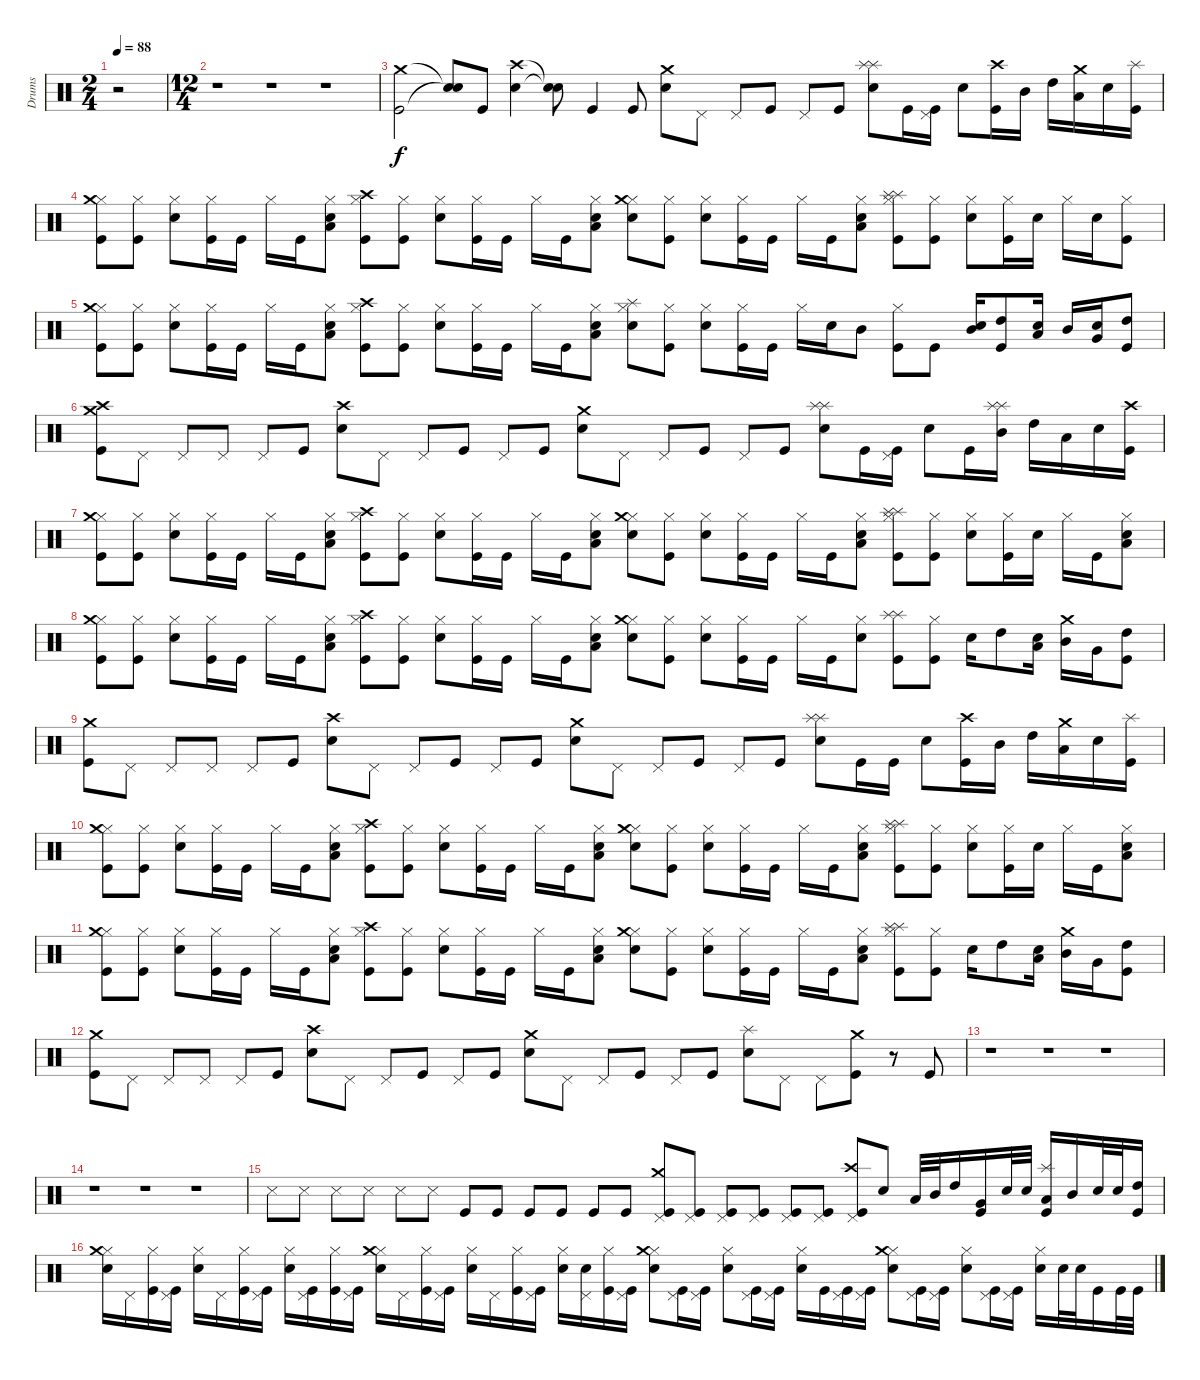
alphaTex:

\track ("Drums" "Drums") {instrument percussion}
\staff {score}
\articulation defaults
\ts (2 4)
\tempo 88
\clef neutral
\ks c
r.2{dy f} |
\ts (12 4)
r.1 r.1 r.1 |
("Kick (hit)" "Crash medium (hit)").2 ("Snare (hit)"{t} "Snare (hit)"{t}).8 "Kick (hit)".8 ("Electric Snare (hit)" "Crash high (hit)").4 ("Snare (hit)"{t} "Snare (hit)"{t}).8 "Kick (hit)".4 "Kick (hit)".8 ("Electric Snare (hit)" "Crash medium (hit)").8 "Pedal Hi-Hat (hit)".8 "Pedal Hi-Hat (hit)".8 "Kick (hit)".8 "Pedal Hi-Hat (hit)".8 "Kick (hit)".8 ("Electric Snare (hit)" "Splash (hit)" "Splash (hit)").8 "Kick (hit)".16 ("Kick (hit)" "Pedal Hi-Hat (hit)").16 "Electric Snare (hit)".8 ("Kick (hit)" "Crash high (hit)").16 "Mid Tom (hit)".16 "High Tom (hit)".16 ("Low Tom (hit)" "Crash medium (hit)").16 "Snare (hit) 2".16 ("Kick (hit)" "Splash (hit)").16 |
("Kick (hit)" "Hi-Hat (closed)" "Crash medium (hit)").8 ("Kick (hit)" "Hi-Hat (closed)").8 ("Electric Snare (hit)" "Hi-Hat (closed)").8 ("Kick (hit)" "Hi-Hat (closed)").16 "Kick (hit)".16 "Hi-Hat (closed)".16 "Kick (hit)".16 ("Electric Snare (hit)" "Low Tom (hit)" "Hi-Hat (closed)").8 ("Kick (hit)" "Hi-Hat (closed)" "Crash high (hit)").8 ("Kick (hit)" "Hi-Hat (closed)").8 ("Electric Snare (hit)" "Hi-Hat (closed)").8 ("Kick (hit)" "Hi-Hat (closed)").16 "Kick (hit)".16 "Hi-Hat (closed)".16 "Kick (hit)".16 ("Electric Snare (hit)" "Low Tom (hit)" "Hi-Hat (closed)").8 ("Electric Snare (hit)" "Hi-Hat (closed)" "Crash medium (hit)").8 ("Kick (hit)" "Hi-Hat (closed)").8 ("Electric Snare (hit)" "Hi-Hat (closed)").8 ("Kick (hit)" "Hi-Hat (closed)").16 "Kick (hit)".16 "Hi-Hat (closed)".16 "Kick (hit)".16 ("Electric Snare (hit)" "Low Tom (hit)" "Hi-Hat (closed)").8 ("Kick (hit)" "Hi-Hat (closed)" "Splash (hit)" "Splash (hit)").8 ("Kick (hit)" "Hi-Hat (closed)").8 ("Electric Snare (hit)" "Hi-Hat (closed)").8 ("Kick (hit)" "Hi-Hat (closed)").16 "Electric Snare (hit)".16 "Hi-Hat (closed)".16 "Electric Snare (hit)".16 ("Kick (hit)" "Hi-Hat (closed)").8 |
("Kick (hit)" "Hi-Hat (closed)" "Crash medium (hit)").8 ("Kick (hit)" "Hi-Hat (closed)").8 ("Electric Snare (hit)" "Hi-Hat (closed)").8 ("Kick (hit)" "Hi-Hat (closed)").16 "Kick (hit)".16 "Hi-Hat (closed)".16 "Kick (hit)".16 ("Electric Snare (hit)" "Low Tom (hit)" "Hi-Hat (closed)").8 ("Kick (hit)" "Hi-Hat (closed)" "Crash high (hit)").8 ("Kick (hit)" "Hi-Hat (closed)").8 ("Electric Snare (hit)" "Hi-Hat (closed)").8 ("Kick (hit)" "Hi-Hat (closed)").16 "Kick (hit)".16 "Hi-Hat (closed)".16 "Kick (hit)".16 ("Electric Snare (hit)" "Low Tom (hit)" "Hi-Hat (closed)").8 ("Electric Snare (hit)" "Hi-Hat (closed)" "Splash (hit)").8 ("Kick (hit)" "Hi-Hat (closed)").8 ("Electric Snare (hit)" "Hi-Hat (closed)").8 ("Kick (hit)" "Hi-Hat (closed)").16 "Kick (hit)".16 "Hi-Hat (closed)".16 "Electric Snare (hit)".16 "Mid Tom (hit)".8 ("Kick (hit)" "Hi-Hat (closed)").8 "Kick (hit)".8 ("Electric Snare (hit)" "Mid Tom (hit)").16 ("Kick (hit)" "High Tom (hit)").8 ("Electric Snare (hit)" "Low Tom (hit)").16 "Mid Tom (hit)".16 ("Electric Snare (hit)" "Very Low Tom (hit)").16 ("Kick (hit)" "High Tom (hit)").8 |
("Kick (hit)" "Crash high (hit)" "Crash medium (hit)").8 "Pedal Hi-Hat (hit)".8 "Pedal Hi-Hat (hit)".8 "Pedal Hi-Hat (hit)".8 "Pedal Hi-Hat (hit)".8 "Kick (hit)".8 ("Electric Snare (hit)" "Crash high (hit)").8 "Pedal Hi-Hat (hit)".8 "Pedal Hi-Hat (hit)".8 "Kick (hit)".8 "Pedal Hi-Hat (hit)".8 "Kick (hit)".8 ("Electric Snare (hit)" "Crash medium (hit)").8 "Pedal Hi-Hat (hit)".8 "Pedal Hi-Hat (hit)".8 "Kick (hit)".8 "Pedal Hi-Hat (hit)".8 "Kick (hit)".8 ("Electric Snare (hit)" "Splash (hit)" "Splash (hit)").8 "Kick (hit)".16 ("Kick (hit)" "Pedal Hi-Hat (hit)").16 "Electric Snare (hit)".8 "Kick (hit)".16 ("Mid Tom (hit)" "Splash (hit)" "Splash (hit)").16 "High Tom (hit)".16 "Low Tom (hit)".16 "Electric Snare (hit)".16 ("Kick (hit)" "Crash high (hit)").16 |
("Kick (hit)" "Hi-Hat (closed)" "Crash medium (hit)").8 ("Kick (hit)" "Hi-Hat (closed)").8 ("Electric Snare (hit)" "Hi-Hat (closed)").8 ("Kick (hit)" "Hi-Hat (closed)").16 "Kick (hit)".16 "Hi-Hat (closed)".16 "Kick (hit)".16 ("Electric Snare (hit)" "Low Tom (hit)" "Hi-Hat (closed)").8 ("Kick (hit)" "Hi-Hat (closed)" "Crash high (hit)").8 ("Kick (hit)" "Hi-Hat (closed)").8 ("Electric Snare (hit)" "Hi-Hat (closed)").8 ("Kick (hit)" "Hi-Hat (closed)").16 "Kick (hit)".16 "Hi-Hat (closed)".16 "Kick (hit)".16 ("Electric Snare (hit)" "Low Tom (hit)" "Hi-Hat (closed)").8 ("Electric Snare (hit)" "Hi-Hat (closed)" "Crash medium (hit)").8 ("Kick (hit)" "Hi-Hat (closed)").8 ("Electric Snare (hit)" "Hi-Hat (closed)").8 ("Kick (hit)" "Hi-Hat (closed)").16 "Kick (hit)".16 "Hi-Hat (closed)".16 "Kick (hit)".16 ("Electric Snare (hit)" "Low Tom (hit)" "Hi-Hat (closed)").8 ("Kick (hit)" "Hi-Hat (closed)" "Splash (hit)" "Splash (hit)").8 ("Kick (hit)" "Hi-Hat (closed)").8 ("Electric Snare (hit)" "Hi-Hat (closed)").8 ("Kick (hit)" "Hi-Hat (closed)").16 "Electric Snare (hit)".16 "Hi-Hat (closed)".16 "Kick (hit)".16 ("Electric Snare (hit)" "Low Tom (hit)" "Hi-Hat (closed)").8 |
("Kick (hit)" "Hi-Hat (closed)" "Crash medium (hit)").8 ("Kick (hit)" "Hi-Hat (closed)").8 ("Electric Snare (hit)" "Hi-Hat (closed)").8 ("Kick (hit)" "Hi-Hat (closed)").16 "Kick (hit)".16 "Hi-Hat (closed)".16 "Kick (hit)".16 ("Electric Snare (hit)" "Low Tom (hit)" "Hi-Hat (closed)").8 ("Kick (hit)" "Hi-Hat (closed)" "Crash high (hit)").8 ("Kick (hit)" "Hi-Hat (closed)").8 ("Electric Snare (hit)" "Hi-Hat (closed)").8 ("Kick (hit)" "Hi-Hat (closed)").16 "Kick (hit)".16 "Hi-Hat (closed)".16 "Kick (hit)".16 ("Electric Snare (hit)" "Low Tom (hit)" "Hi-Hat (closed)").8 ("Electric Snare (hit)" "Hi-Hat (closed)" "Crash medium (hit)").8 ("Kick (hit)" "Hi-Hat (closed)").8 ("Electric Snare (hit)" "Hi-Hat (closed)").8 ("Kick (hit)" "Hi-Hat (closed)").16 "Kick (hit)".16 "Hi-Hat (closed)".16 "Kick (hit)".16 ("Electric Snare (hit)" "Hi-Hat (closed)").8 ("Kick (hit)" "Splash (hit)" "Splash (hit)").8 ("Kick (hit)" "Hi-Hat (closed)").8 "Electric Snare (hit)".16 "High Tom (hit)".8 ("Electric Snare (hit)" "Low Tom (hit)").16 ("Mid Tom (hit)" "Crash medium (hit)").16 "Very Low Tom (hit)".16 ("Kick (hit)" "High Tom (hit)").8 |
("Kick (hit)" "Crash medium (hit)").8 "Pedal Hi-Hat (hit)".8 "Pedal Hi-Hat (hit)".8 "Pedal Hi-Hat (hit)".8 "Pedal Hi-Hat (hit)".8 "Kick (hit)".8 ("Electric Snare (hit)" "Crash high (hit)").8 "Pedal Hi-Hat (hit)".8 "Pedal Hi-Hat (hit)".8 "Kick (hit)".8 "Pedal Hi-Hat (hit)".8 "Kick (hit)".8 ("Electric Snare (hit)" "Crash medium (hit)").8 "Pedal Hi-Hat (hit)".8 "Pedal Hi-Hat (hit)".8 "Kick (hit)".8 "Pedal Hi-Hat (hit)".8 "Kick (hit)".8 ("Electric Snare (hit)" "Splash (hit)" "Splash (hit)").8 "Kick (hit)".16 "Kick (hit)".16 "Electric Snare (hit)".8 ("Kick (hit)" "Crash high (hit)").16 "Mid Tom (hit)".16 "High Tom (hit)".16 ("Low Tom (hit)" "Crash medium (hit)").16 "Snare (hit) 2".16 ("Kick (hit)" "Splash (hit)").16 |
("Kick (hit)" "Hi-Hat (closed)" "Crash medium (hit)").8 ("Kick (hit)" "Hi-Hat (closed)").8 ("Electric Snare (hit)" "Hi-Hat (closed)").8 ("Kick (hit)" "Hi-Hat (closed)").16 "Kick (hit)".16 "Hi-Hat (closed)".16 "Kick (hit)".16 ("Electric Snare (hit)" "Low Tom (hit)" "Hi-Hat (closed)").8 ("Kick (hit)" "Hi-Hat (closed)" "Crash high (hit)").8 ("Kick (hit)" "Hi-Hat (closed)").8 ("Electric Snare (hit)" "Hi-Hat (closed)").8 ("Kick (hit)" "Hi-Hat (closed)").16 "Kick (hit)".16 "Hi-Hat (closed)".16 "Kick (hit)".16 ("Electric Snare (hit)" "Low Tom (hit)" "Hi-Hat (closed)").8 ("Electric Snare (hit)" "Hi-Hat (closed)" "Crash medium (hit)").8 ("Kick (hit)" "Hi-Hat (closed)").8 ("Electric Snare (hit)" "Hi-Hat (closed)").8 ("Kick (hit)" "Hi-Hat (closed)").16 "Kick (hit)".16 "Hi-Hat (closed)".16 "Kick (hit)".16 ("Electric Snare (hit)" "Low Tom (hit)" "Hi-Hat (closed)").8 ("Kick (hit)" "Hi-Hat (closed)" "Splash (hit)" "Splash (hit)").8 ("Kick (hit)" "Hi-Hat (closed)").8 ("Electric Snare (hit)" "Hi-Hat (closed)").8 ("Kick (hit)" "Hi-Hat (closed)").16 "Electric Snare (hit)".16 "Hi-Hat (closed)".16 "Kick (hit)".16 ("Electric Snare (hit)" "Low Tom (hit)" "Hi-Hat (closed)").8 |
("Kick (hit)" "Hi-Hat (closed)" "Crash medium (hit)").8 ("Kick (hit)" "Hi-Hat (closed)").8 ("Electric Snare (hit)" "Hi-Hat (closed)").8 ("Kick (hit)" "Hi-Hat (closed)").16 "Kick (hit)".16 "Hi-Hat (closed)".16 "Kick (hit)".16 ("Electric Snare (hit)" "Low Tom (hit)" "Hi-Hat (closed)").8 ("Kick (hit)" "Hi-Hat (closed)" "Crash high (hit)").8 ("Kick (hit)" "Hi-Hat (closed)").8 ("Electric Snare (hit)" "Hi-Hat (closed)").8 ("Kick (hit)" "Hi-Hat (closed)").16 "Kick (hit)".16 "Hi-Hat (closed)".16 "Kick (hit)".16 ("Electric Snare (hit)" "Low Tom (hit)" "Hi-Hat (closed)").8 ("Electric Snare (hit)" "Hi-Hat (closed)" "Crash medium (hit)").8 ("Kick (hit)" "Hi-Hat (closed)").8 ("Electric Snare (hit)" "Hi-Hat (closed)").8 ("Kick (hit)" "Hi-Hat (closed)").16 "Kick (hit)".16 "Hi-Hat (closed)".16 "Kick (hit)".16 ("Electric Snare (hit)" "Low Tom (hit)" "Hi-Hat (closed)").8 ("Kick (hit)" "Hi-Hat (closed)" "Splash (hit)" "Splash (hit)").8 ("Kick (hit)" "Hi-Hat (closed)").8 "Electric Snare (hit)".16 "High Tom (hit)".8 ("Electric Snare (hit)" "Low Tom (hit)").16 ("Mid Tom (hit)" "Crash medium (hit)").16 "Very Low Tom (hit)".16 ("Kick (hit)" "High Tom (hit)").8 |
("Kick (hit)" "Crash medium (hit)").8 "Pedal Hi-Hat (hit)".8 "Pedal Hi-Hat (hit)".8 "Pedal Hi-Hat (hit)".8 "Pedal Hi-Hat (hit)".8 "Kick (hit)".8 ("Electric Snare (hit)" "Crash high (hit)").8 "Pedal Hi-Hat (hit)".8 "Pedal Hi-Hat (hit)".8 "Kick (hit)".8 "Pedal Hi-Hat (hit)".8 "Kick (hit)".8 ("Electric Snare (hit)" "Crash medium (hit)").8 "Pedal Hi-Hat (hit)".8 "Pedal Hi-Hat (hit)".8 "Kick (hit)".8 "Pedal Hi-Hat (hit)".8 "Kick (hit)".8 ("Electric Snare (hit)" "Splash (hit)").8 "Pedal Hi-Hat (hit)".8 "Pedal Hi-Hat (hit)".8 ("Kick (hit)" "Crash medium (hit)").8 r.8 "Kick (hit)".8 |
r.1 r.1 r.1 |
r.1 r.1 r.1 |
"Metronome (hit)".8 "Metronome (hit)".8 "Metronome (hit)".8 "Metronome (hit)".8 "Metronome (hit)".8 "Metronome (hit)".8 "Kick (hit)".8 "Kick (hit)".8 "Kick (hit)".8 "Kick (hit)".8 "Kick (hit)".8 "Kick (hit)".8 ("Kick (hit)" "Pedal Hi-Hat (hit)" "Crash medium (hit)").8 ("Kick (hit)" "Pedal Hi-Hat (hit)").8 ("Kick (hit)" "Pedal Hi-Hat (hit)").8 ("Kick (hit)" "Pedal Hi-Hat (hit)").8 ("Kick (hit)" "Pedal Hi-Hat (hit)").8 ("Kick (hit)" "Pedal Hi-Hat (hit)").8 ("Kick (hit)" "Pedal Hi-Hat (hit)" "Crash high (hit)").8 "Electric Snare (hit)".8 "Low Tom (hit)".32 "Mid Tom (hit)".32 "High Tom (hit)".16 ("Kick (hit)" "Very Low Tom (hit)").16 "Electric Snare (hit)".32 "Electric Snare (hit)".32 ("Kick (hit)" "Low Tom (hit)" "Splash (hit)").16 "Mid Tom (hit)".16 "Electric Snare (hit)".32 "Electric Snare (hit)".32 ("Kick (hit)" "High Tom (hit)").16 |
("Electric Snare (hit)" "Hi-Hat (closed)" "Crash medium (hit)").16 "Pedal Hi-Hat (hit)".16 ("Kick (hit)" "Hi-Hat (closed)").16 ("Kick (hit)" "Pedal Hi-Hat (hit)").16 ("Electric Snare (hit)" "Hi-Hat (closed)").16 "Pedal Hi-Hat (hit)".16 ("Kick (hit)" "Hi-Hat (closed)").16 ("Kick (hit)" "Pedal Hi-Hat (hit)").16 ("Electric Snare (hit)" "Hi-Hat (closed)").16 ("Kick (hit)" "Pedal Hi-Hat (hit)").16 ("Kick (hit)" "Hi-Hat (closed)").16 ("Kick (hit)" "Pedal Hi-Hat (hit)").16 ("Electric Snare (hit)" "Hi-Hat (closed)" "Crash medium (hit)").16 "Pedal Hi-Hat (hit)".16 ("Kick (hit)" "Hi-Hat (closed)").16 ("Kick (hit)" "Pedal Hi-Hat (hit)").16 ("Electric Snare (hit)" "Hi-Hat (closed)").16 "Pedal Hi-Hat (hit)".16 ("Kick (hit)" "Hi-Hat (closed)").16 ("Kick (hit)" "Pedal Hi-Hat (hit)").16 ("Electric Snare (hit)" "Hi-Hat (closed)").16 ("Electric Snare (hit)" "Pedal Hi-Hat (hit)").16 ("Kick (hit)" "Hi-Hat (closed)").16 ("Kick (hit)" "Pedal Hi-Hat (hit)").16 ("Electric Snare (hit)" "Hi-Hat (closed)" "Crash medium (hit)").8 ("Kick (hit)" "Pedal Hi-Hat (hit)").16 ("Kick (hit)" "Pedal Hi-Hat (hit)").16 ("Electric Snare (hit)" "Hi-Hat (closed)").8 ("Kick (hit)" "Pedal Hi-Hat (hit)").16 ("Kick (hit)" "Pedal Hi-Hat (hit)").16 ("Electric Snare (hit)" "Hi-Hat (closed)").16 "Kick (hit)".16 ("Kick (hit)" "Pedal Hi-Hat (hit)").16 ("Kick (hit)" "Pedal Hi-Hat (hit)").16 ("Electric Snare (hit)" "Hi-Hat (closed)" "Crash medium (hit)").8 ("Kick (hit)" "Pedal Hi-Hat (hit)").16 ("Kick (hit)" "Pedal Hi-Hat (hit)").16 ("Electric Snare (hit)" "Hi-Hat (closed)").8 ("Kick (hit)" "Pedal Hi-Hat (hit)").16 ("Kick (hit)" "Pedal Hi-Hat (hit)").16 ("Electric Snare (hit)" "Hi-Hat (closed)").16 "Electric Snare (hit)".32 "Electric Snare (hit)".32 "Kick (hit)".16 "Kick (hit)".32 "Kick (hit)".32
